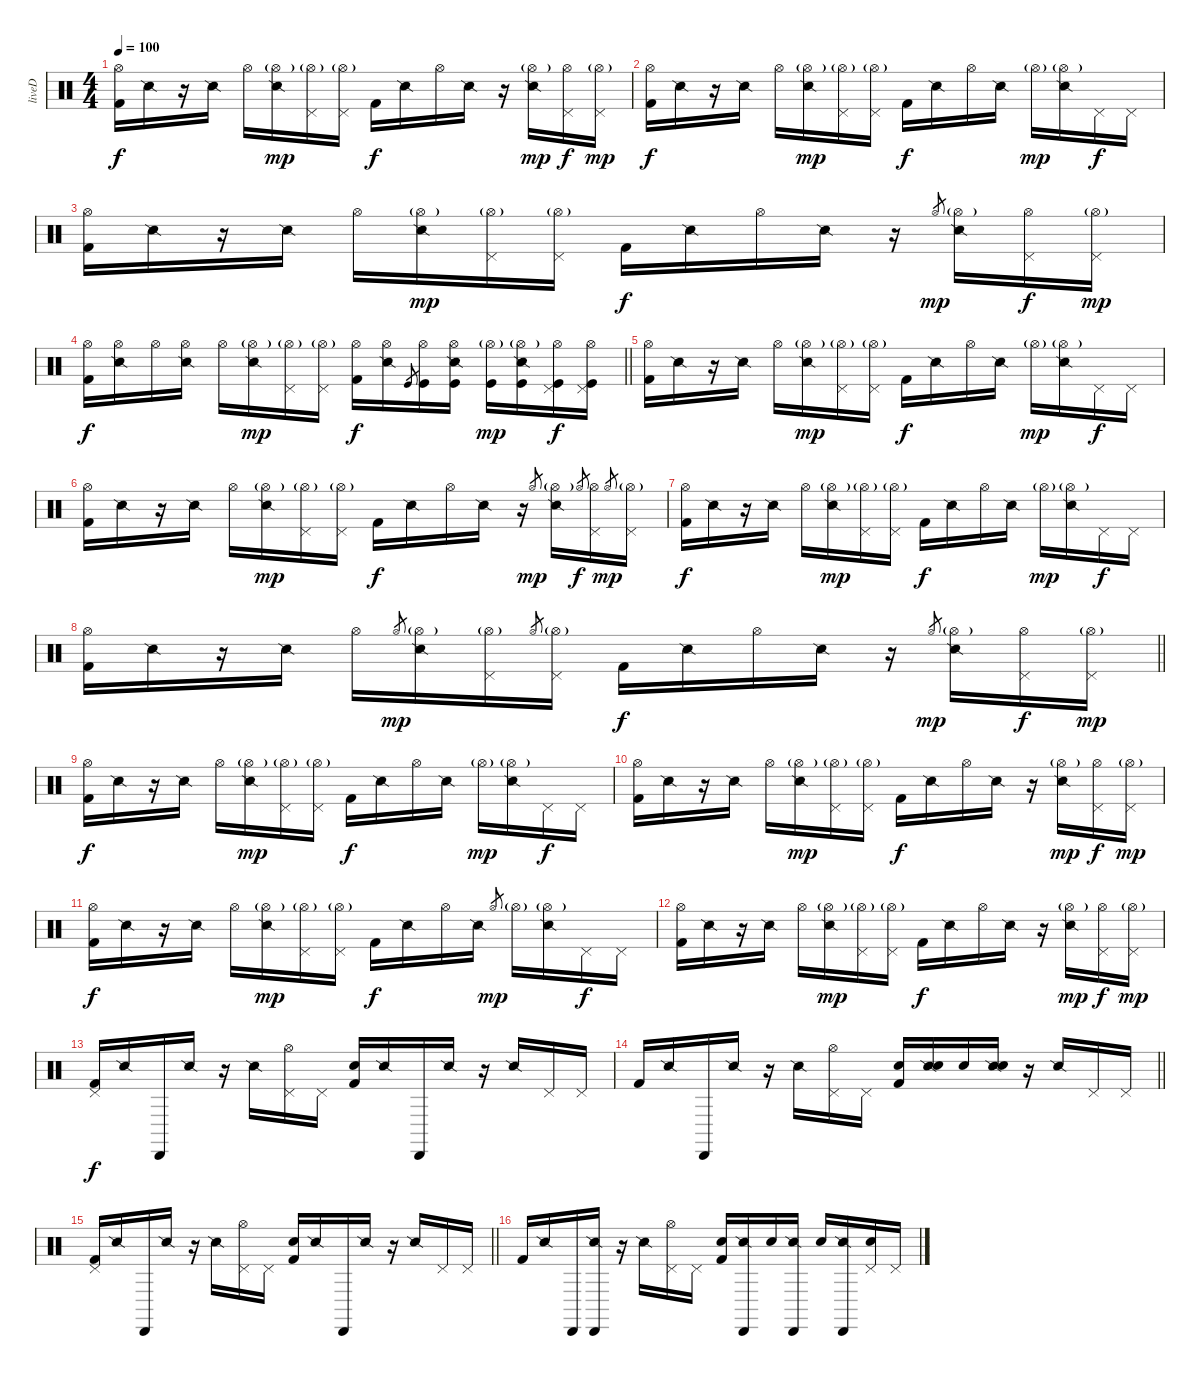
\track ("liveD" "liveD") {instrument percussion}
\staff {score}
\articulation defaults
\ts (4 4)
\section ("" "")
\tempo 100
\clef neutral
\ks c
("Hi-Hat (open)" "Kick (hit) 2").16{dy f} "Snare (side stick) 2".16 r.16 "Snare (side stick) 2".16 "Hi-Hat (open)".16 ("Hi-Hat (open)"{g} "Snare (side stick) 2").16{dy mp} ("Hi-Hat (open)"{g} "Pedal Hi-Hat (hit)").16 ("Hi-Hat (open)"{g} "Pedal Hi-Hat (hit)").16 "Kick (hit) 2".16{dy f} "Snare (side stick) 2".16 "Hi-Hat (open)".16 "Snare (side stick) 2".16 r.16 ("Hi-Hat (open)"{g} "Snare (side stick) 2").16{dy mp} ("Hi-Hat (open)" "Pedal Hi-Hat (hit)").16{dy f} ("Hi-Hat (open)"{g} "Pedal Hi-Hat (hit)").16{dy mp} |
("Hi-Hat (open)" "Kick (hit) 2").16{dy f} "Snare (side stick) 2".16 r.16 "Snare (side stick) 2".16 "Hi-Hat (open)".16 ("Hi-Hat (open)"{g} "Snare (side stick) 2").16{dy mp} ("Hi-Hat (open)"{g} "Pedal Hi-Hat (hit)").16 ("Hi-Hat (open)"{g} "Pedal Hi-Hat (hit)").16 "Kick (hit) 2".16{dy f} "Snare (side stick) 2".16 "Hi-Hat (open)".16 "Snare (side stick) 2".16 "Hi-Hat (open)"{g}.16{dy mp} ("Hi-Hat (open)"{g} "Snare (side stick) 2").16 "Pedal Hi-Hat (hit)".16{dy f} "Pedal Hi-Hat (hit)".16 |
("Hi-Hat (open)" "Kick (hit) 2").16 "Snare (side stick) 2".16 r.16 "Snare (side stick) 2".16 "Hi-Hat (open)".16 ("Hi-Hat (open)"{g} "Snare (side stick) 2").16{dy mp} ("Hi-Hat (open)"{g} "Pedal Hi-Hat (hit)").16 ("Hi-Hat (open)"{g} "Pedal Hi-Hat (hit)").16 "Kick (hit) 2".16{dy f} "Snare (side stick) 2".16 "Hi-Hat (open)".16 "Snare (side stick) 2".16 r.16 "Hi-Hat (open)".8{gr dy mp} ("Hi-Hat (open)"{g} "Snare (side stick) 2").16 ("Hi-Hat (open)" "Pedal Hi-Hat (hit)").16{dy f} ("Hi-Hat (open)"{g} "Pedal Hi-Hat (hit)").16{dy mp} |
\barLineRight lightlight
("Hi-Hat (open)" "Kick (hit) 2").16{dy f} ("Hi-Hat (open)" "Snare (side stick) 2").16 "Hi-Hat (open)".16 ("Hi-Hat (open)" "Snare (side stick) 2").16 "Hi-Hat (open)".16 ("Hi-Hat (open)"{g} "Snare (side stick) 2").16{dy mp} ("Hi-Hat (open)"{g} "Pedal Hi-Hat (hit)").16 ("Hi-Hat (open)"{g} "Pedal Hi-Hat (hit)").16 ("Hi-Hat (open)" "Kick (hit) 2").16{dy f} ("Hi-Hat (open)" "Snare (side stick) 2").16 "Kick (hit)".8{gr} ("Hi-Hat (open)" "Kick (hit)").16 ("Hi-Hat (open)" "Snare (side stick) 2" "Kick (hit)").16 ("Hi-Hat (open)"{g} "Kick (hit)").16{dy mp} ("Hi-Hat (open)"{g} "Snare (side stick) 2" "Kick (hit)").16 ("Hi-Hat (open)" "Pedal Hi-Hat (hit)" "Kick (hit)").16{dy f} ("Hi-Hat (open)" "Pedal Hi-Hat (hit)" "Kick (hit)").16 |
("Hi-Hat (open)" "Kick (hit) 2").16 "Snare (side stick) 2".16 r.16 "Snare (side stick) 2".16 "Hi-Hat (open)".16 ("Hi-Hat (open)"{g} "Snare (side stick) 2").16{dy mp} ("Hi-Hat (open)"{g} "Pedal Hi-Hat (hit)").16 ("Hi-Hat (open)"{g} "Pedal Hi-Hat (hit)").16 "Kick (hit) 2".16{dy f} "Snare (side stick) 2".16 "Hi-Hat (open)".16 "Snare (side stick) 2".16 "Hi-Hat (open)"{g}.16{dy mp} ("Hi-Hat (open)"{g} "Snare (side stick) 2").16 "Pedal Hi-Hat (hit)".16{dy f} "Pedal Hi-Hat (hit)".16 |
("Hi-Hat (open)" "Kick (hit) 2").16 "Snare (side stick) 2".16 r.16 "Snare (side stick) 2".16 "Hi-Hat (open)".16 ("Hi-Hat (open)"{g} "Snare (side stick) 2").16{dy mp} ("Hi-Hat (open)"{g} "Pedal Hi-Hat (hit)").16 ("Hi-Hat (open)"{g} "Pedal Hi-Hat (hit)").16 "Kick (hit) 2".16{dy f} "Snare (side stick) 2".16 "Hi-Hat (open)".16 "Snare (side stick) 2".16 r.16 "Hi-Hat (open)".8{gr dy mp} ("Hi-Hat (open)"{g} "Snare (side stick) 2").16 "Hi-Hat (open)".8{gr dy f} ("Hi-Hat (open)" "Pedal Hi-Hat (hit)").16 "Hi-Hat (open)".8{gr dy mp} ("Hi-Hat (open)"{g} "Pedal Hi-Hat (hit)").16 |
("Hi-Hat (open)" "Kick (hit) 2").16{dy f} "Snare (side stick) 2".16 r.16 "Snare (side stick) 2".16 "Hi-Hat (open)".16 ("Hi-Hat (open)"{g} "Snare (side stick) 2").16{dy mp} ("Hi-Hat (open)"{g} "Pedal Hi-Hat (hit)").16 ("Hi-Hat (open)"{g} "Pedal Hi-Hat (hit)").16 "Kick (hit) 2".16{dy f} "Snare (side stick) 2".16 "Hi-Hat (open)".16 "Snare (side stick) 2".16 "Hi-Hat (open)"{g}.16{dy mp} ("Hi-Hat (open)"{g} "Snare (side stick) 2").16 "Pedal Hi-Hat (hit)".16{dy f} "Pedal Hi-Hat (hit)".16 |
\barLineRight lightlight
("Hi-Hat (open)" "Kick (hit) 2").16 "Snare (side stick) 2".16 r.16 "Snare (side stick) 2".16 "Hi-Hat (open)".16 "Hi-Hat (open)".8{gr dy mp} ("Hi-Hat (open)"{g} "Snare (side stick) 2").16 ("Hi-Hat (open)"{g} "Pedal Hi-Hat (hit)").16 "Hi-Hat (open)".8{gr} ("Hi-Hat (open)"{g} "Pedal Hi-Hat (hit)").16 "Kick (hit) 2".16{dy f} "Snare (side stick) 2".16 "Hi-Hat (open)".16 "Snare (side stick) 2".16 r.16 "Hi-Hat (open)".8{gr dy mp} ("Hi-Hat (open)"{g} "Snare (side stick) 2").16 ("Hi-Hat (open)" "Pedal Hi-Hat (hit)").16{dy f} ("Hi-Hat (open)"{g} "Pedal Hi-Hat (hit)").16{dy mp} |
("Hi-Hat (open)" "Kick (hit) 2").16{dy f} "Snare (side stick) 2".16 r.16 "Snare (side stick) 2".16 "Hi-Hat (open)".16 ("Hi-Hat (open)"{g} "Snare (side stick) 2").16{dy mp} ("Hi-Hat (open)"{g} "Pedal Hi-Hat (hit)").16 ("Hi-Hat (open)"{g} "Pedal Hi-Hat (hit)").16 "Kick (hit) 2".16{dy f} "Snare (side stick) 2".16 "Hi-Hat (open)".16 "Snare (side stick) 2".16 "Hi-Hat (open)"{g}.16{dy mp} ("Hi-Hat (open)"{g} "Snare (side stick) 2").16 "Pedal Hi-Hat (hit)".16{dy f} "Pedal Hi-Hat (hit)".16 |
("Hi-Hat (open)" "Kick (hit) 2").16 "Snare (side stick) 2".16 r.16 "Snare (side stick) 2".16 "Hi-Hat (open)".16 ("Hi-Hat (open)"{g} "Snare (side stick) 2").16{dy mp} ("Hi-Hat (open)"{g} "Pedal Hi-Hat (hit)").16 ("Hi-Hat (open)"{g} "Pedal Hi-Hat (hit)").16 "Kick (hit) 2".16{dy f} "Snare (side stick) 2".16 "Hi-Hat (open)".16 "Snare (side stick) 2".16 r.16 ("Hi-Hat (open)"{g} "Snare (side stick) 2").16{dy mp} ("Hi-Hat (open)" "Pedal Hi-Hat (hit)").16{dy f} ("Hi-Hat (open)"{g} "Pedal Hi-Hat (hit)").16{dy mp} |
("Hi-Hat (open)" "Kick (hit) 2").16{dy f} "Snare (side stick) 2".16 r.16 "Snare (side stick) 2".16 "Hi-Hat (open)".16 ("Hi-Hat (open)"{g} "Snare (side stick) 2").16{dy mp} ("Hi-Hat (open)"{g} "Pedal Hi-Hat (hit)").16 ("Hi-Hat (open)"{g} "Pedal Hi-Hat (hit)").16 "Kick (hit) 2".16{dy f} "Snare (side stick) 2".16 "Hi-Hat (open)".16 "Snare (side stick) 2".16 "Hi-Hat (open)".8{gr dy mp} "Hi-Hat (open)"{g}.16 ("Hi-Hat (open)"{g} "Snare (side stick) 2").16 "Pedal Hi-Hat (hit)".16{dy f} "Pedal Hi-Hat (hit)".16 |
("Hi-Hat (open)" "Kick (hit) 2").16 "Snare (side stick) 2".16 r.16 "Snare (side stick) 2".16 "Hi-Hat (open)".16 ("Hi-Hat (open)"{g} "Snare (side stick) 2").16{dy mp} ("Hi-Hat (open)"{g} "Pedal Hi-Hat (hit)").16 ("Hi-Hat (open)"{g} "Pedal Hi-Hat (hit)").16 "Kick (hit) 2".16{dy f} "Snare (side stick) 2".16 "Hi-Hat (open)".16 "Snare (side stick) 2".16 r.16 ("Hi-Hat (open)"{g} "Snare (side stick) 2").16{dy mp} ("Hi-Hat (open)" "Pedal Hi-Hat (hit)").16{dy f} ("Hi-Hat (open)"{g} "Pedal Hi-Hat (hit)").16{dy mp} |
("Pedal Hi-Hat (hit)" "Kick (hit) 2").16{dy f} "Snare (side stick) 2".16 "Cabasa (hit)".16 "Snare (side stick) 2".16 r.16 "Snare (side stick) 2".16 ("Pedal Hi-Hat (hit)" "Hi-Hat (open)").16 "Pedal Hi-Hat (hit)".16 ("Snare (hit) 2" "Kick (hit) 2").16 "Snare (side stick) 2".16 "Cabasa (hit)".16 "Snare (side stick) 2".16 r.16 "Snare (side stick) 2".16 "Pedal Hi-Hat (hit)".16 "Pedal Hi-Hat (hit)".16 |
\barLineRight lightlight "Kick (hit) 2".16 "Snare (side stick) 2".16 "Cabasa (hit)".16 "Snare (side stick) 2".16
r.16 "Snare (side stick) 2".16 ("Pedal Hi-Hat (hit)" "Hi-Hat (open)").16 "Pedal Hi-Hat (hit)".16 ("Snare (hit) 2" "Kick (hit) 2").16 ("Snare (side stick) 2" "Snare (hit) 2").16 "Snare (hit) 2".16 ("Snare (side stick) 2" "Snare (hit) 2").16 r.16 "Snare (side stick) 2".16 "Pedal Hi-Hat (hit)".16 "Pedal Hi-Hat (hit)".16 |
\barLineRight lightlight
("Pedal Hi-Hat (hit)" "Kick (hit) 2").16 "Snare (side stick) 2".16 "Cabasa (hit)".16 "Snare (side stick) 2".16 r.16 "Snare (side stick) 2".16 ("Pedal Hi-Hat (hit)" "Hi-Hat (open)").16 "Pedal Hi-Hat (hit)".16 ("Snare (hit) 2" "Kick (hit) 2").16 "Snare (side stick) 2".16 "Cabasa (hit)".16 "Snare (side stick) 2".16 r.16 "Snare (side stick) 2".16 "Pedal Hi-Hat (hit)".16 "Pedal Hi-Hat (hit)".16 |
\section ("" "")
"Kick (hit) 2".16 "Snare (side stick) 2".16 "Cabasa (hit)".16 ("Snare (side stick) 2" "Cabasa (hit)").16 r.16 "Snare (side stick) 2".16 ("Pedal Hi-Hat (hit)" "Hi-Hat (open)").16 "Pedal Hi-Hat (hit)".16 ("Snare (hit) 2" "Kick (hit) 2").16 ("Snare (side stick) 2" "Cabasa (hit)").16 "Snare (hit) 2".16 ("Snare (side stick) 2" "Cabasa (hit)").16 "Snare (hit) 2".16 ("Snare (side stick) 2" "Cabasa (hit)").16 ("Pedal Hi-Hat (hit)" "Snare (hit) 2").16 "Pedal Hi-Hat (hit)".16
